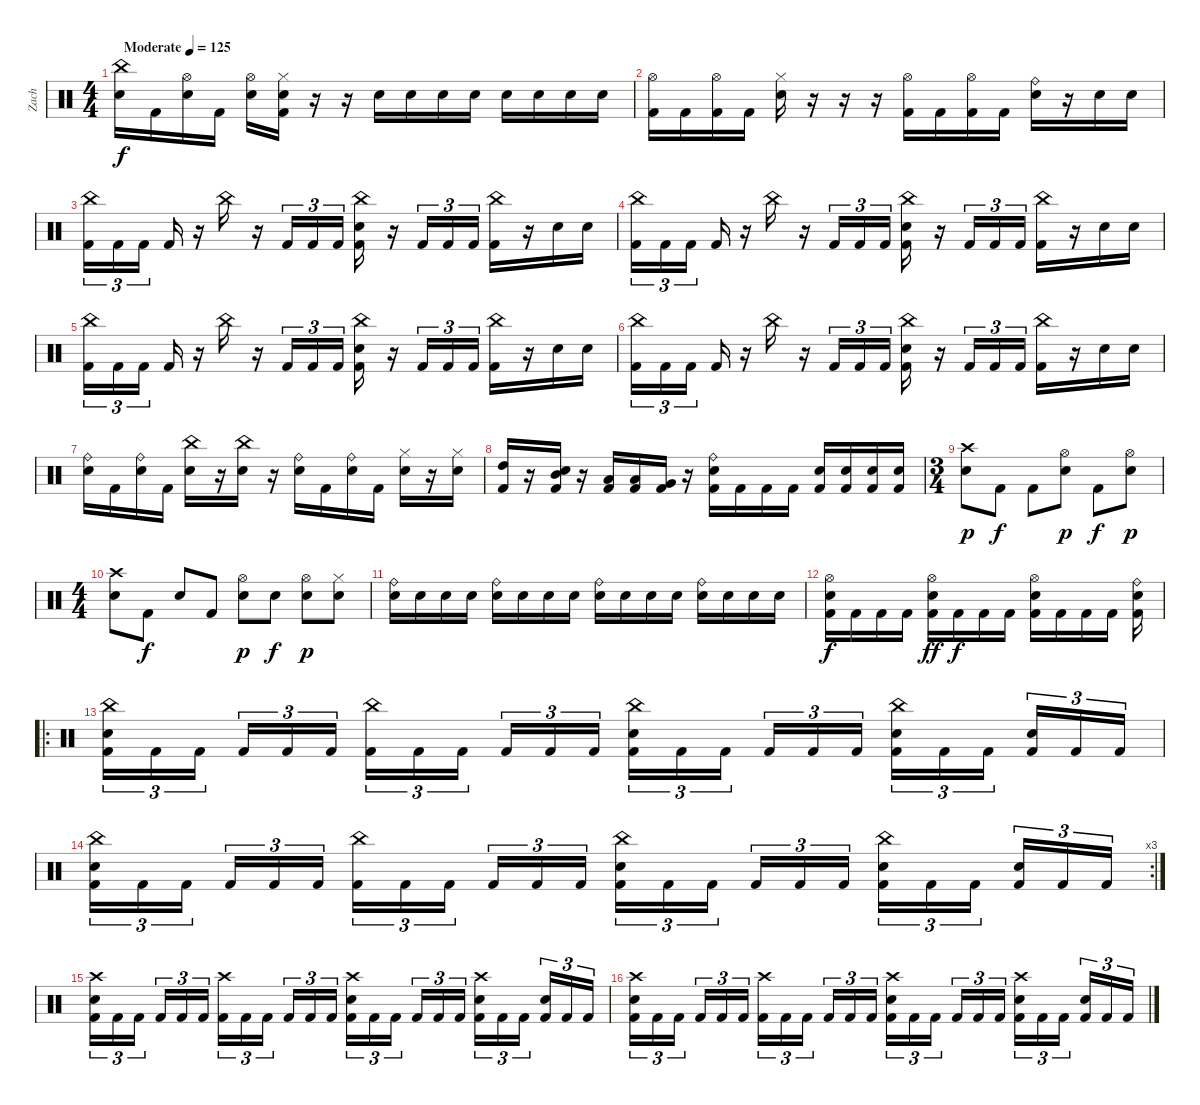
\track ("Zach" "Zach") {instrument percussion}
\staff {score}
\articulation defaults
\ts (4 4)
\tempo (125 "Moderate")
\clef neutral
\ks c
("China (hit)" "Electric Snare (hit)").16{dy f} "Kick (hit) 2".16 ("Hi-Hat (open)" "Electric Snare (hit)").16 "Kick (hit) 2".16 ("Hi-Hat (open)" "Electric Snare (hit)").16 ("Hi-Hat (closed)" "Electric Snare (hit)" "Kick (hit) 2").16 r.16 r.16 "Electric Snare (hit)".16 "Electric Snare (hit)".16 "Electric Snare (hit)".16 "Electric Snare (hit)".16 "Electric Snare (hit)".16 "Electric Snare (hit)".16 "Electric Snare (hit)".16 "Electric Snare (hit)".16 |
("Hi-Hat (open)" "Kick (hit) 2").16 "Kick (hit) 2".16 ("Hi-Hat (open)" "Kick (hit) 2").16 "Kick (hit) 2".16 ("Hi-Hat (closed)" "Electric Snare (hit)").16 r.16 r.16 r.16 ("Hi-Hat (open)" "Kick (hit) 2").16 "Kick (hit) 2".16 ("Hi-Hat (open)" "Kick (hit) 2").16 "Kick (hit) 2".16 ("Ride (bell)" "Electric Snare (hit)").16 r.16 "Electric Snare (hit)".16 "Electric Snare (hit)".16 |
("China (hit)" "Kick (hit) 2").16{tu (3 2)} "Kick (hit) 2".16{tu (3 2)} "Kick (hit) 2".16{tu (3 2) beam splitsecondary} "Kick (hit) 2".16 r.16 "China (hit)".16 r.16 "Kick (hit) 2".16{tu (3 2)} "Kick (hit) 2".16{tu (3 2)} "Kick (hit) 2".16{tu (3 2)} ("China (hit)" "Electric Snare (hit)" "Kick (hit) 2").16 r.16 "Kick (hit) 2".16{tu (3 2)} "Kick (hit) 2".16{tu (3 2)} "Kick (hit) 2".16{tu (3 2)} ("China (hit)" "Kick (hit) 2").16 r.16 "Electric Snare (hit)".16 "Electric Snare (hit)".16 |
("China (hit)" "Kick (hit) 2").16{tu (3 2)} "Kick (hit) 2".16{tu (3 2)} "Kick (hit) 2".16{tu (3 2) beam splitsecondary} "Kick (hit) 2".16 r.16 "China (hit)".16 r.16 "Kick (hit) 2".16{tu (3 2)} "Kick (hit) 2".16{tu (3 2)} "Kick (hit) 2".16{tu (3 2)} ("China (hit)" "Electric Snare (hit)" "Kick (hit) 2").16 r.16 "Kick (hit) 2".16{tu (3 2)} "Kick (hit) 2".16{tu (3 2)} "Kick (hit) 2".16{tu (3 2)} ("China (hit)" "Kick (hit) 2").16 r.16 "Electric Snare (hit)".16 "Electric Snare (hit)".16 |
("China (hit)" "Kick (hit) 2").16{tu (3 2)} "Kick (hit) 2".16{tu (3 2)} "Kick (hit) 2".16{tu (3 2) beam splitsecondary} "Kick (hit) 2".16 r.16 "China (hit)".16 r.16 "Kick (hit) 2".16{tu (3 2)} "Kick (hit) 2".16{tu (3 2)} "Kick (hit) 2".16{tu (3 2)} ("China (hit)" "Electric Snare (hit)" "Kick (hit) 2").16 r.16 "Kick (hit) 2".16{tu (3 2)} "Kick (hit) 2".16{tu (3 2)} "Kick (hit) 2".16{tu (3 2)} ("China (hit)" "Kick (hit) 2").16 r.16 "Electric Snare (hit)".16 "Electric Snare (hit)".16 |
("China (hit)" "Kick (hit) 2").16{tu (3 2)} "Kick (hit) 2".16{tu (3 2)} "Kick (hit) 2".16{tu (3 2) beam splitsecondary} "Kick (hit) 2".16 r.16 "China (hit)".16 r.16 "Kick (hit) 2".16{tu (3 2)} "Kick (hit) 2".16{tu (3 2)} "Kick (hit) 2".16{tu (3 2)} ("China (hit)" "Electric Snare (hit)" "Kick (hit) 2").16 r.16 "Kick (hit) 2".16{tu (3 2)} "Kick (hit) 2".16{tu (3 2)} "Kick (hit) 2".16{tu (3 2)} ("China (hit)" "Kick (hit) 2").16 r.16 "Electric Snare (hit)".16 "Electric Snare (hit)".16 |
("Ride (bell)" "Electric Snare (hit)").16 "Kick (hit) 2".16 ("Ride (bell)" "Electric Snare (hit)").16 "Kick (hit) 2".16 ("China (hit)" "Electric Snare (hit)").16 r.16 ("China (hit)" "Electric Snare (hit)").16 r.16 ("Ride (bell)" "Electric Snare (hit)").16 "Kick (hit) 2".16 ("Ride (bell)" "Electric Snare (hit)").16 "Kick (hit) 2".16 ("Hi-Hat (closed)" "Electric Snare (hit)").16 r.16 ("Hi-Hat (closed)" "Electric Snare (hit)").16 |
("High Tom (hit)" "Kick (hit) 2").16 r.16 ("Electric Snare (hit)" "Mid Tom (hit)" "Kick (hit) 2").16 r.16 ("Low Tom (hit)" "Kick (hit) 2").16 ("Low Tom (hit)" "Kick (hit) 2").16 ("Very Low Tom (hit)" "Kick (hit) 2").16 r.16 ("Electric Snare (hit)" "Ride (bell)" "Kick (hit) 2").16 "Kick (hit) 2".16 "Kick (hit) 2".16 "Kick (hit) 2".16 ("Electric Snare (hit)" "Kick (hit) 2").16 ("Electric Snare (hit)" "Kick (hit) 2").16 ("Electric Snare (hit)" "Kick (hit) 2").16 ("Electric Snare (hit)" "Kick (hit) 2").16 |
\ts (3 4)
("Crash high (hit)" "Electric Snare (hit)").8{dy p} "Kick (hit) 2".8{dy f} "Kick (hit) 2".8 ("Hi-Hat (open)" "Electric Snare (hit)").8{dy p} "Kick (hit) 2".8{dy f} ("Hi-Hat (open)" "Electric Snare (hit)").8{dy p} |
\ts (4 4)
("Crash high (hit)" "Electric Snare (hit)").8 "Kick (hit) 2".8{dy f} "Electric Snare (hit)".8 "Kick (hit) 2".8 ("Hi-Hat (open)" "Electric Snare (hit)").8{dy p} "Electric Snare (hit)".8{dy f} ("Hi-Hat (open)" "Electric Snare (hit)").8{dy p} ("Hi-Hat (closed)" "Electric Snare (hit)").8 |
("Ride (bell)" "Electric Snare (hit)").16 "Electric Snare (hit)".16 "Electric Snare (hit)".16 "Electric Snare (hit)".16 ("Ride (bell)" "Electric Snare (hit)").16 "Electric Snare (hit)".16 "Electric Snare (hit)".16 "Electric Snare (hit)".16 ("Ride (bell)" "Electric Snare (hit)").16 "Electric Snare (hit)".16 "Electric Snare (hit)".16 "Electric Snare (hit)".16 ("Ride (bell)" "Electric Snare (hit)").16 "Electric Snare (hit)".16 "Electric Snare (hit)".16 "Electric Snare (hit)".16 |
("Hi-Hat (open)" "Electric Snare (hit)" "Kick (hit) 2").16{dy f} "Kick (hit) 2".16 "Kick (hit) 2".16 "Kick (hit) 2".16 ("Hi-Hat (open)" "Electric Snare (hit)" "Kick (hit) 2").16{dy ff} "Kick (hit) 2".16{dy f} "Kick (hit) 2".16 "Kick (hit) 2".16 ("Hi-Hat (open)" "Electric Snare (hit)" "Kick (hit) 2").16 "Kick (hit) 2".16 "Kick (hit) 2".16 "Kick (hit) 2".16 ("Ride (bell)" "Electric Snare (hit)" "Kick (hit) 2").16 |
\ro
("China (hit)" "Electric Snare (hit)" "Kick (hit) 2").16{tu (3 2)} "Kick (hit) 2".16{tu (3 2)} "Kick (hit) 2".16{tu (3 2) beam splitsecondary} "Kick (hit) 2".16{tu (3 2)} "Kick (hit) 2".16{tu (3 2)} "Kick (hit) 2".16{tu (3 2)} ("China (hit)" "Kick (hit) 2").16{tu (3 2)} "Kick (hit) 2".16{tu (3 2)} "Kick (hit) 2".16{tu (3 2) beam splitsecondary} "Kick (hit) 2".16{tu (3 2)} "Kick (hit) 2".16{tu (3 2)} "Kick (hit) 2".16{tu (3 2)} ("China (hit)" "Electric Snare (hit)" "Kick (hit) 2").16{tu (3 2)} "Kick (hit) 2".16{tu (3 2)} "Kick (hit) 2".16{tu (3 2) beam splitsecondary} "Kick (hit) 2".16{tu (3 2)} "Kick (hit) 2".16{tu (3 2)} "Kick (hit) 2".16{tu (3 2)} ("China (hit)" "Electric Snare (hit)" "Kick (hit) 2").16{tu (3 2)} "Kick (hit) 2".16{tu (3 2)} "Kick (hit) 2".16{tu (3 2) beam splitsecondary} ("Electric Snare (hit)" "Kick (hit) 2").16{tu (3 2)} "Kick (hit) 2".16{tu (3 2)} "Kick (hit) 2".16{tu (3 2)} |
\rc 3
("China (hit)" "Electric Snare (hit)" "Kick (hit) 2").16{tu (3 2)} "Kick (hit) 2".16{tu (3 2)} "Kick (hit) 2".16{tu (3 2) beam splitsecondary} "Kick (hit) 2".16{tu (3 2)} "Kick (hit) 2".16{tu (3 2)} "Kick (hit) 2".16{tu (3 2)} ("China (hit)" "Kick (hit) 2").16{tu (3 2)} "Kick (hit) 2".16{tu (3 2)} "Kick (hit) 2".16{tu (3 2) beam splitsecondary} "Kick (hit) 2".16{tu (3 2)} "Kick (hit) 2".16{tu (3 2)} "Kick (hit) 2".16{tu (3 2)} ("China (hit)" "Electric Snare (hit)" "Kick (hit) 2").16{tu (3 2)} "Kick (hit) 2".16{tu (3 2)} "Kick (hit) 2".16{tu (3 2) beam splitsecondary} "Kick (hit) 2".16{tu (3 2)} "Kick (hit) 2".16{tu (3 2)} "Kick (hit) 2".16{tu (3 2)} ("China (hit)" "Electric Snare (hit)" "Kick (hit) 2").16{tu (3 2)} "Kick (hit) 2".16{tu (3 2)} "Kick (hit) 2".16{tu (3 2) beam splitsecondary} ("Electric Snare (hit)" "Kick (hit) 2").16{tu (3 2)} "Kick (hit) 2".16{tu (3 2)} "Kick (hit) 2".16{tu (3 2)} |
("Crash high (hit)" "Electric Snare (hit)" "Kick (hit) 2").16{tu (3 2)} "Kick (hit) 2".16{tu (3 2)} "Kick (hit) 2".16{tu (3 2) beam splitsecondary} "Kick (hit) 2".16{tu (3 2)} "Kick (hit) 2".16{tu (3 2)} "Kick (hit) 2".16{tu (3 2)} ("Crash high (hit)" "Kick (hit) 2").16{tu (3 2)} "Kick (hit) 2".16{tu (3 2)} "Kick (hit) 2".16{tu (3 2) beam splitsecondary} "Kick (hit) 2".16{tu (3 2)} "Kick (hit) 2".16{tu (3 2)} "Kick (hit) 2".16{tu (3 2)} ("Crash high (hit)" "Electric Snare (hit)" "Kick (hit) 2").16{tu (3 2)} "Kick (hit) 2".16{tu (3 2)} "Kick (hit) 2".16{tu (3 2) beam splitsecondary} "Kick (hit) 2".16{tu (3 2)} "Kick (hit) 2".16{tu (3 2)} "Kick (hit) 2".16{tu (3 2)} ("Crash high (hit)" "Electric Snare (hit)" "Kick (hit) 2").16{tu (3 2)} "Kick (hit) 2".16{tu (3 2)} "Kick (hit) 2".16{tu (3 2) beam splitsecondary} ("Electric Snare (hit)" "Kick (hit) 2").16{tu (3 2)} "Kick (hit) 2".16{tu (3 2)} "Kick (hit) 2".16{tu (3 2)} |
("Crash high (hit)" "Electric Snare (hit)" "Kick (hit) 2").16{tu (3 2)} "Kick (hit) 2".16{tu (3 2)} "Kick (hit) 2".16{tu (3 2) beam splitsecondary} "Kick (hit) 2".16{tu (3 2)} "Kick (hit) 2".16{tu (3 2)} "Kick (hit) 2".16{tu (3 2)} ("Crash high (hit)" "Kick (hit) 2").16{tu (3 2)} "Kick (hit) 2".16{tu (3 2)} "Kick (hit) 2".16{tu (3 2) beam splitsecondary} "Kick (hit) 2".16{tu (3 2)} "Kick (hit) 2".16{tu (3 2)} "Kick (hit) 2".16{tu (3 2)} ("Crash high (hit)" "Electric Snare (hit)" "Kick (hit) 2").16{tu (3 2)} "Kick (hit) 2".16{tu (3 2)} "Kick (hit) 2".16{tu (3 2) beam splitsecondary} "Kick (hit) 2".16{tu (3 2)} "Kick (hit) 2".16{tu (3 2)} "Kick (hit) 2".16{tu (3 2)} ("Crash high (hit)" "Electric Snare (hit)" "Kick (hit) 2").16{tu (3 2)} "Kick (hit) 2".16{tu (3 2)} "Kick (hit) 2".16{tu (3 2) beam splitsecondary} ("Electric Snare (hit)" "Kick (hit) 2").16{tu (3 2)} "Kick (hit) 2".16{tu (3 2)} "Kick (hit) 2".16{tu (3 2)}
